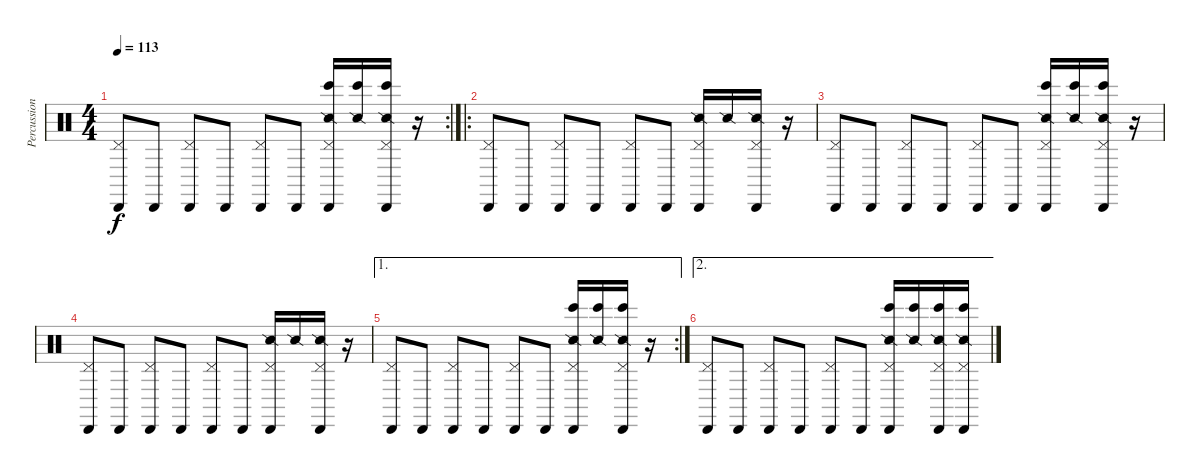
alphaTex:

\track ("Percussion" "Percussion") {instrument percussion}
\staff {score}
\articulation defaults
\rc 2
\ts (4 4)
\tempo 113
\clef neutral
\ks c
("Cabasa (hit)" "Pedal Hi-Hat (hit)").8{dy f} "Cabasa (hit)".8 ("Cabasa (hit)" "Pedal Hi-Hat (hit)").8 "Cabasa (hit)".8 ("Cabasa (hit)" "Pedal Hi-Hat (hit)").8 "Cabasa (hit)".8 ("Cabasa (hit)" "Snare (side stick) 2" "Bongo High (hit)" "Pedal Hi-Hat (hit)").16 ("Snare (side stick) 2" "Bongo High (hit)").16 ("Cabasa (hit)" "Snare (side stick) 2" "Bongo High (hit)" "Pedal Hi-Hat (hit)").16 r.16 |
\ro
("Cabasa (hit)" "Pedal Hi-Hat (hit)").8 "Cabasa (hit)".8 ("Cabasa (hit)" "Pedal Hi-Hat (hit)").8 "Cabasa (hit)".8 ("Cabasa (hit)" "Pedal Hi-Hat (hit)").8 "Cabasa (hit)".8 ("Cabasa (hit)" "Snare (side stick) 2" "Pedal Hi-Hat (hit)").16 "Snare (side stick) 2".16 ("Cabasa (hit)" "Snare (side stick) 2" "Pedal Hi-Hat (hit)").16 r.16 |
("Cabasa (hit)" "Pedal Hi-Hat (hit)").8 "Cabasa (hit)".8 ("Cabasa (hit)" "Pedal Hi-Hat (hit)").8 "Cabasa (hit)".8 ("Cabasa (hit)" "Pedal Hi-Hat (hit)").8 "Cabasa (hit)".8 ("Cabasa (hit)" "Snare (side stick) 2" "Bongo High (hit)" "Pedal Hi-Hat (hit)").16 ("Snare (side stick) 2" "Bongo High (hit)").16 ("Cabasa (hit)" "Snare (side stick) 2" "Bongo High (hit)" "Pedal Hi-Hat (hit)").16 r.16 |
("Cabasa (hit)" "Pedal Hi-Hat (hit)").8 "Cabasa (hit)".8 ("Cabasa (hit)" "Pedal Hi-Hat (hit)").8 "Cabasa (hit)".8 ("Cabasa (hit)" "Pedal Hi-Hat (hit)").8 "Cabasa (hit)".8 ("Cabasa (hit)" "Snare (side stick) 2" "Pedal Hi-Hat (hit)").16 "Snare (side stick) 2".16 ("Cabasa (hit)" "Snare (side stick) 2" "Pedal Hi-Hat (hit)").16 r.16 |
\ae 1
\rc 2
("Cabasa (hit)" "Pedal Hi-Hat (hit)").8 "Cabasa (hit)".8 ("Cabasa (hit)" "Pedal Hi-Hat (hit)").8 "Cabasa (hit)".8 ("Cabasa (hit)" "Pedal Hi-Hat (hit)").8 "Cabasa (hit)".8 ("Cabasa (hit)" "Snare (side stick) 2" "Bongo High (hit)" "Pedal Hi-Hat (hit)").16 ("Snare (side stick) 2" "Bongo High (hit)").16 ("Cabasa (hit)" "Snare (side stick) 2" "Bongo High (hit)" "Pedal Hi-Hat (hit)").16 r.16 |
\ae 2
("Cabasa (hit)" "Pedal Hi-Hat (hit)").8 "Cabasa (hit)".8 ("Cabasa (hit)" "Pedal Hi-Hat (hit)").8 "Cabasa (hit)".8 ("Cabasa (hit)" "Pedal Hi-Hat (hit)").8 "Cabasa (hit)".8 ("Cabasa (hit)" "Snare (side stick) 2" "Bongo High (hit)" "Pedal Hi-Hat (hit)").16 ("Snare (side stick) 2" "Bongo High (hit)").16 ("Cabasa (hit)" "Snare (side stick) 2" "Bongo High (hit)" "Pedal Hi-Hat (hit)").16 ("Cabasa (hit)" "Snare (side stick) 2" "Bongo High (hit)" "Pedal Hi-Hat (hit)").16
